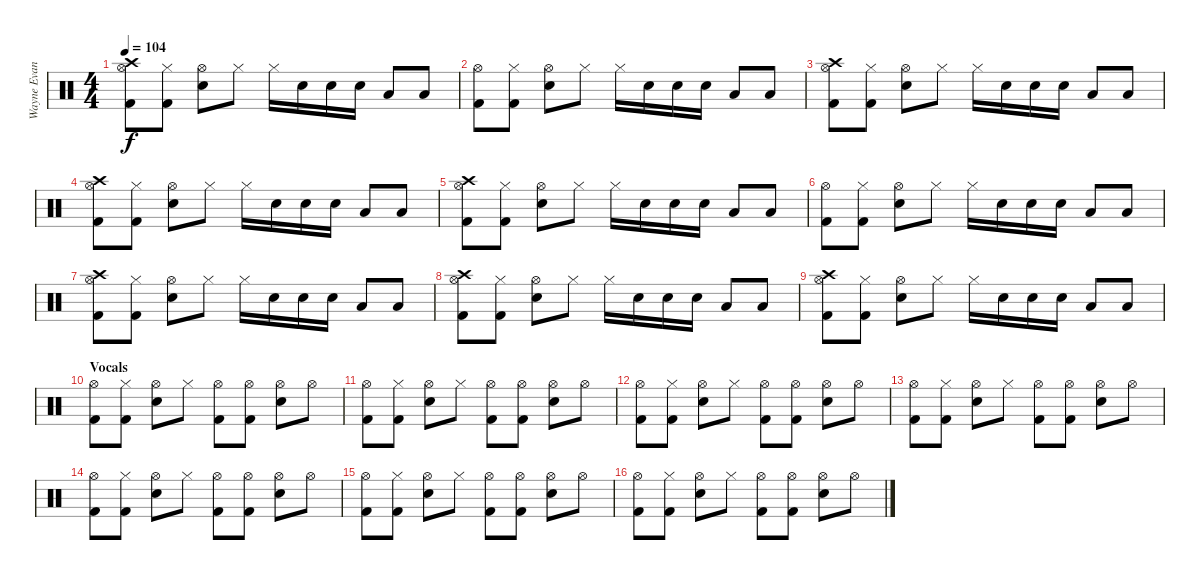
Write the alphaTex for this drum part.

\track ("Wayne Evans " "Wayne Evan") {instrument percussion}
\staff {score}
\articulation defaults
\ts (4 4)
\tempo 104
\clef neutral
\ks c
("Crash high (hit)" "Hi-Hat (open)" "Kick (hit) 2").8{dy f} ("Hi-Hat (closed)" "Kick (hit) 2").8 ("Hi-Hat (open)" "Electric Snare (hit)").8 "Hi-Hat (closed)".8 "Hi-Hat (closed)".16 "Electric Snare (hit)".16 "Electric Snare (hit)".16 "Electric Snare (hit)".16 "Low Tom (hit)".8 "Low Tom (hit)".8 |
("Hi-Hat (open)" "Kick (hit) 2").8 ("Hi-Hat (closed)" "Kick (hit) 2").8 ("Hi-Hat (open)" "Electric Snare (hit)").8 "Hi-Hat (closed)".8 "Hi-Hat (closed)".16 "Electric Snare (hit)".16 "Electric Snare (hit)".16 "Electric Snare (hit)".16 "Low Tom (hit)".8 "Low Tom (hit)".8 |
("Crash high (hit)" "Hi-Hat (open)" "Kick (hit) 2").8 ("Hi-Hat (closed)" "Kick (hit) 2").8 ("Hi-Hat (open)" "Electric Snare (hit)").8 "Hi-Hat (closed)".8 "Hi-Hat (closed)".16 "Electric Snare (hit)".16 "Electric Snare (hit)".16 "Electric Snare (hit)".16 "Low Tom (hit)".8 "Low Tom (hit)".8 |
("Crash high (hit)" "Hi-Hat (open)" "Kick (hit) 2").8 ("Hi-Hat (closed)" "Kick (hit) 2").8 ("Hi-Hat (open)" "Electric Snare (hit)").8 "Hi-Hat (closed)".8 "Hi-Hat (closed)".16 "Electric Snare (hit)".16 "Electric Snare (hit)".16 "Electric Snare (hit)".16 "Low Tom (hit)".8 "Low Tom (hit)".8 |
("Crash high (hit)" "Hi-Hat (open)" "Kick (hit) 2").8 ("Hi-Hat (closed)" "Kick (hit) 2").8 ("Hi-Hat (open)" "Electric Snare (hit)").8 "Hi-Hat (closed)".8 "Hi-Hat (closed)".16 "Electric Snare (hit)".16 "Electric Snare (hit)".16 "Electric Snare (hit)".16 "Low Tom (hit)".8 "Low Tom (hit)".8 |
("Hi-Hat (open)" "Kick (hit) 2").8 ("Hi-Hat (closed)" "Kick (hit) 2").8 ("Hi-Hat (open)" "Electric Snare (hit)").8 "Hi-Hat (closed)".8 "Hi-Hat (closed)".16 "Electric Snare (hit)".16 "Electric Snare (hit)".16 "Electric Snare (hit)".16 "Low Tom (hit)".8 "Low Tom (hit)".8 |
("Crash high (hit)" "Hi-Hat (open)" "Kick (hit) 2").8 ("Hi-Hat (closed)" "Kick (hit) 2").8 ("Hi-Hat (open)" "Electric Snare (hit)").8 "Hi-Hat (closed)".8 "Hi-Hat (closed)".16 "Electric Snare (hit)".16 "Electric Snare (hit)".16 "Electric Snare (hit)".16 "Low Tom (hit)".8 "Low Tom (hit)".8 |
("Crash high (hit)" "Hi-Hat (open)" "Kick (hit) 2").8 ("Hi-Hat (closed)" "Kick (hit) 2").8 ("Hi-Hat (open)" "Electric Snare (hit)").8 "Hi-Hat (closed)".8 "Hi-Hat (closed)".16 "Electric Snare (hit)".16 "Electric Snare (hit)".16 "Electric Snare (hit)".16 "Low Tom (hit)".8 "Low Tom (hit)".8 |
("Crash high (hit)" "Hi-Hat (open)" "Kick (hit) 2").8 ("Hi-Hat (closed)" "Kick (hit) 2").8 ("Hi-Hat (open)" "Electric Snare (hit)").8 "Hi-Hat (closed)".8 "Hi-Hat (closed)".16 "Electric Snare (hit)".16 "Electric Snare (hit)".16 "Electric Snare (hit)".16 "Low Tom (hit)".8 "Low Tom (hit)".8 |
\section ("" "Vocals")
("Hi-Hat (open)" "Kick (hit) 2").8 ("Hi-Hat (closed)" "Kick (hit) 2").8 ("Hi-Hat (open)" "Electric Snare (hit)").8 "Hi-Hat (closed)".8 ("Hi-Hat (open)" "Kick (hit) 2").8 ("Hi-Hat (open)" "Kick (hit) 2").8 ("Hi-Hat (open)" "Electric Snare (hit)").8 "Hi-Hat (open)".8 |
("Hi-Hat (open)" "Kick (hit) 2").8 ("Hi-Hat (closed)" "Kick (hit) 2").8 ("Hi-Hat (open)" "Electric Snare (hit)").8 "Hi-Hat (closed)".8 ("Hi-Hat (open)" "Kick (hit) 2").8 ("Hi-Hat (open)" "Kick (hit) 2").8 ("Hi-Hat (open)" "Electric Snare (hit)").8 "Hi-Hat (open)".8 |
("Hi-Hat (open)" "Kick (hit) 2").8 ("Hi-Hat (closed)" "Kick (hit) 2").8 ("Hi-Hat (open)" "Electric Snare (hit)").8 "Hi-Hat (closed)".8 ("Hi-Hat (open)" "Kick (hit) 2").8 ("Hi-Hat (open)" "Kick (hit) 2").8 ("Hi-Hat (open)" "Electric Snare (hit)").8 "Hi-Hat (open)".8 |
("Hi-Hat (open)" "Kick (hit) 2").8 ("Hi-Hat (closed)" "Kick (hit) 2").8 ("Hi-Hat (open)" "Electric Snare (hit)").8 "Hi-Hat (closed)".8 ("Hi-Hat (open)" "Kick (hit) 2").8 ("Hi-Hat (open)" "Kick (hit) 2").8 ("Hi-Hat (open)" "Electric Snare (hit)").8 "Hi-Hat (open)".8 |
("Hi-Hat (open)" "Kick (hit) 2").8 ("Hi-Hat (closed)" "Kick (hit) 2").8 ("Hi-Hat (open)" "Electric Snare (hit)").8 "Hi-Hat (closed)".8 ("Hi-Hat (open)" "Kick (hit) 2").8 ("Hi-Hat (open)" "Kick (hit) 2").8 ("Hi-Hat (open)" "Electric Snare (hit)").8 "Hi-Hat (open)".8 |
("Hi-Hat (open)" "Kick (hit) 2").8 ("Hi-Hat (closed)" "Kick (hit) 2").8 ("Hi-Hat (open)" "Electric Snare (hit)").8 "Hi-Hat (closed)".8 ("Hi-Hat (open)" "Kick (hit) 2").8 ("Hi-Hat (open)" "Kick (hit) 2").8 ("Hi-Hat (open)" "Electric Snare (hit)").8 "Hi-Hat (open)".8 |
("Hi-Hat (open)" "Kick (hit) 2").8 ("Hi-Hat (closed)" "Kick (hit) 2").8 ("Hi-Hat (open)" "Electric Snare (hit)").8 "Hi-Hat (closed)".8 ("Hi-Hat (open)" "Kick (hit) 2").8 ("Hi-Hat (open)" "Kick (hit) 2").8 ("Hi-Hat (open)" "Electric Snare (hit)").8 "Hi-Hat (open)".8
